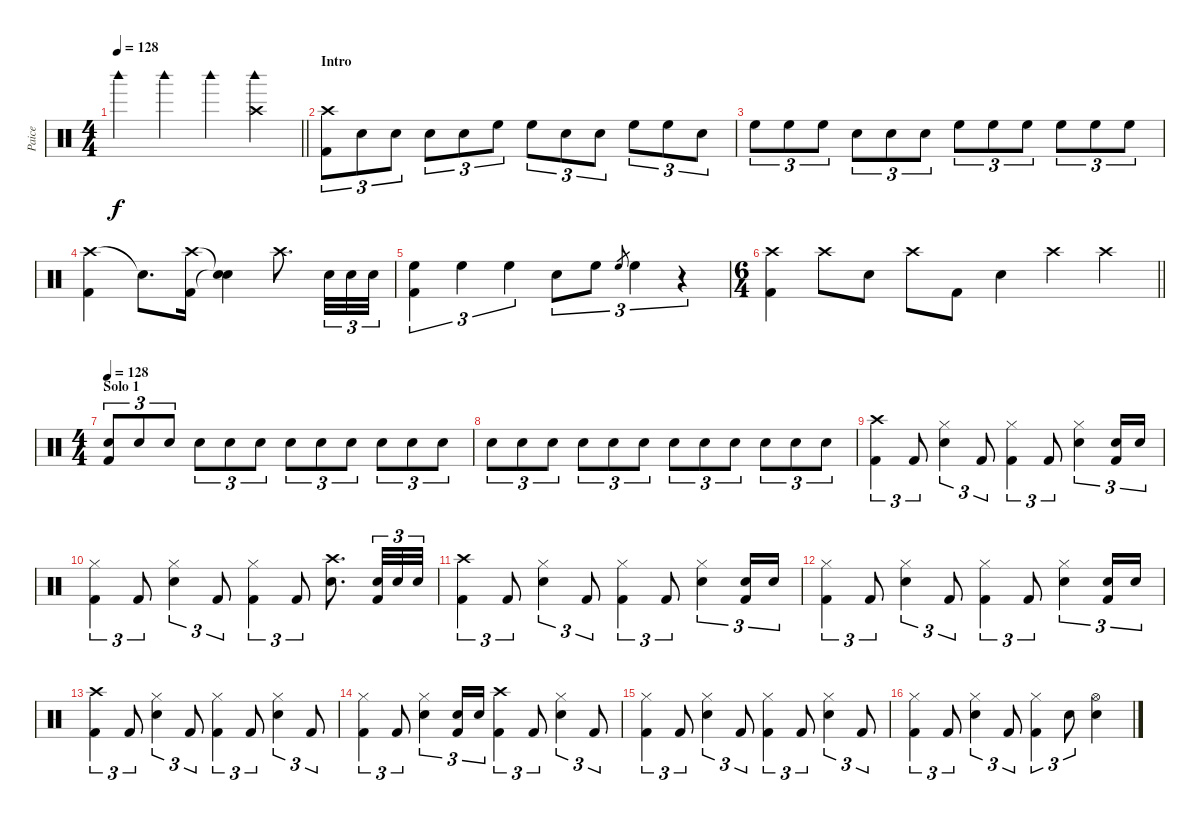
\track ("Paice" "Paice") {instrument percussion}
\staff {score}
\articulation defaults
\ts (4 4)
\tempo 128
\clef neutral
\barLineRight lightlight
\ks c "Woodblock high (hit)".4{dy f} "Woodblock high (hit)".4 "Woodblock high (hit)".4
("Crash high (hit)" "Woodblock high (hit)").4 |
\section ("" "Intro")
("Crash high (hit)" "Kick (hit) 2").8{tu (3 2)} "Snare (hit) 2".8{tu (3 2)} "Snare (hit) 2".8{tu (3 2)} "Snare (hit) 2".8{tu (3 2)} "Snare (hit) 2".8{tu (3 2)} "High Floor Tom (hit)".8{tu (3 2)} "High Floor Tom (hit)".8{tu (3 2)} "Snare (hit) 2".8{tu (3 2)} "Snare (hit) 2".8{tu (3 2)} "High Floor Tom (hit)".8{tu (3 2)} "High Floor Tom (hit)".8{tu (3 2)} "Snare (hit) 2".8{tu (3 2)} |
"High Floor Tom (hit)".8{tu (3 2)} "High Floor Tom (hit)".8{tu (3 2)} "High Floor Tom (hit)".8{tu (3 2)} "Snare (hit) 2".8{tu (3 2)} "Snare (hit) 2".8{tu (3 2)} "Snare (hit) 2".8{tu (3 2)} "High Floor Tom (hit)".8{tu (3 2)} "High Floor Tom (hit)".8{tu (3 2)} "High Floor Tom (hit)".8{tu (3 2)} "High Floor Tom (hit)".8{tu (3 2)} "High Floor Tom (hit)".8{tu (3 2)} "High Floor Tom (hit)".8{tu (3 2)} |
("Crash high (hit)" "Kick (hit) 2").4 "Snare (hit)"{t}.8{d} ("Crash high (hit)" "Kick (hit) 2").16 ("Snare (hit)"{t} "Snare (hit)"{t}).4 "Crash high (hit)".8{d} "Snare (hit) 2".32{tu (3 2)} "Snare (hit) 2".32{tu (3 2)} "Snare (hit) 2".32{tu (3 2)} |
("High Floor Tom (hit)" "Kick (hit) 2").4{tu (3 2)} "High Floor Tom (hit)".4{tu (3 2)} "High Floor Tom (hit)".4{tu (3 2)} "Snare (hit) 2".8{tu (3 2)} "High Floor Tom (hit)".8{tu (3 2)} "High Floor Tom (hit)".8{gr} "High Floor Tom (hit)".4{tu (3 2)} r.4{tu (3 2)} |
\ts (6 4)
\barLineRight lightlight
("Crash high (hit)" "Kick (hit) 2").4 "Crash high (hit)".8 "Snare (hit) 2".8 "Crash high (hit)".8 "Kick (hit) 2".8 "Snare (hit) 2".4 "Crash high (hit)".4 "Crash high (hit)".4 |
\ts (4 4)
\section ("" "Solo 1")
\tempo 128
("Snare (hit) 2" "Kick (hit) 2").8{tu (3 2) volume 16} "Snare (hit) 2".8{tu (3 2)} "Snare (hit) 2".8{tu (3 2)} "Snare (hit) 2".8{tu (3 2)} "Snare (hit) 2".8{tu (3 2)} "Snare (hit) 2".8{tu (3 2)} "Snare (hit) 2".8{tu (3 2)} "Snare (hit) 2".8{tu (3 2)} "Snare (hit) 2".8{tu (3 2)} "Snare (hit) 2".8{tu (3 2)} "Snare (hit) 2".8{tu (3 2)} "Snare (hit) 2".8{tu (3 2)} |
"Snare (hit) 2".8{tu (3 2)} "Snare (hit) 2".8{tu (3 2)} "Snare (hit) 2".8{tu (3 2)} "Snare (hit) 2".8{tu (3 2)} "Snare (hit) 2".8{tu (3 2)} "Snare (hit) 2".8{tu (3 2)} "Snare (hit) 2".8{tu (3 2)} "Snare (hit) 2".8{tu (3 2)} "Snare (hit) 2".8{tu (3 2)} "Snare (hit) 2".8{tu (3 2)} "Snare (hit) 2".8{tu (3 2)} "Snare (hit) 2".8{tu (3 2)} |
("Crash high (hit)" "Kick (hit) 2").4{tu (3 2) volume 9} "Kick (hit) 2".8{tu (3 2)} ("Hi-Hat (closed)" "Snare (hit) 2").4{tu (3 2)} "Kick (hit) 2".8{tu (3 2)} ("Hi-Hat (closed)" "Kick (hit) 2").4{tu (3 2)} "Kick (hit) 2".8{tu (3 2)} ("Hi-Hat (closed)" "Snare (hit) 2").4{tu (3 2)} ("Snare (hit) 2" "Kick (hit) 2").16{tu (3 2)} "Snare (hit) 2".16{tu (3 2)} |
("Hi-Hat (closed)" "Kick (hit) 2").4{tu (3 2)} "Kick (hit) 2".8{tu (3 2)} ("Hi-Hat (closed)" "Snare (hit) 2").4{tu (3 2)} "Kick (hit) 2".8{tu (3 2)} ("Hi-Hat (closed)" "Kick (hit) 2").4{tu (3 2)} "Kick (hit) 2".8{tu (3 2)} ("Crash high (hit)" "Snare (hit) 2").8{d} ("Snare (hit) 2" "Kick (hit) 2").32{tu (3 2)} "Snare (hit) 2".32{tu (3 2)} "Snare (hit) 2".32{tu (3 2)} |
("Crash high (hit)" "Kick (hit) 2").4{tu (3 2)} "Kick (hit) 2".8{tu (3 2)} ("Hi-Hat (closed)" "Snare (hit) 2").4{tu (3 2)} "Kick (hit) 2".8{tu (3 2)} ("Hi-Hat (closed)" "Kick (hit) 2").4{tu (3 2)} "Kick (hit) 2".8{tu (3 2)} ("Hi-Hat (closed)" "Snare (hit) 2").4{tu (3 2)} ("Snare (hit) 2" "Kick (hit) 2").16{tu (3 2)} "Snare (hit) 2".16{tu (3 2)} |
("Hi-Hat (closed)" "Kick (hit) 2").4{tu (3 2)} "Kick (hit) 2".8{tu (3 2)} ("Hi-Hat (closed)" "Snare (hit) 2").4{tu (3 2)} "Kick (hit) 2".8{tu (3 2)} ("Hi-Hat (closed)" "Kick (hit) 2").4{tu (3 2)} "Kick (hit) 2".8{tu (3 2)} ("Hi-Hat (closed)" "Snare (hit) 2").4{tu (3 2)} ("Snare (hit) 2" "Kick (hit) 2").16{tu (3 2)} "Snare (hit) 2".16{tu (3 2)} |
("Crash high (hit)" "Kick (hit) 2").4{tu (3 2)} "Kick (hit) 2".8{tu (3 2)} ("Hi-Hat (closed)" "Snare (hit) 2").4{tu (3 2)} "Kick (hit) 2".8{tu (3 2)} ("Hi-Hat (closed)" "Kick (hit) 2").4{tu (3 2)} "Kick (hit) 2".8{tu (3 2)} ("Hi-Hat (closed)" "Snare (hit) 2").4{tu (3 2)} "Kick (hit) 2".8{tu (3 2)} |
("Hi-Hat (closed)" "Kick (hit) 2").4{tu (3 2)} "Kick (hit) 2".8{tu (3 2)} ("Hi-Hat (closed)" "Snare (hit) 2").4{tu (3 2)} ("Snare (hit) 2" "Kick (hit) 2").16{tu (3 2)} "Snare (hit) 2".16{tu (3 2)} ("Crash high (hit)" "Kick (hit) 2").4{tu (3 2)} "Kick (hit) 2".8{tu (3 2)} ("Hi-Hat (closed)" "Snare (hit) 2").4{tu (3 2)} "Kick (hit) 2".8{tu (3 2)} |
("Hi-Hat (closed)" "Kick (hit) 2").4{tu (3 2)} "Kick (hit) 2".8{tu (3 2)} ("Hi-Hat (closed)" "Snare (hit) 2").4{tu (3 2)} "Kick (hit) 2".8{tu (3 2)} ("Hi-Hat (closed)" "Kick (hit) 2").4{tu (3 2)} "Kick (hit) 2".8{tu (3 2)} ("Hi-Hat (closed)" "Snare (hit) 2").4{tu (3 2)} "Kick (hit) 2".8{tu (3 2)} |
("Hi-Hat (closed)" "Kick (hit) 2").4{tu (3 2)} "Kick (hit) 2".8{tu (3 2)} ("Hi-Hat (closed)" "Snare (hit) 2").4{tu (3 2)} "Kick (hit) 2".8{tu (3 2)} ("Hi-Hat (closed)" "Kick (hit) 2").4{tu (3 2)} "Snare (hit) 2".8{tu (3 2)} ("Hi-Hat (open)" "Snare (hit) 2").4
